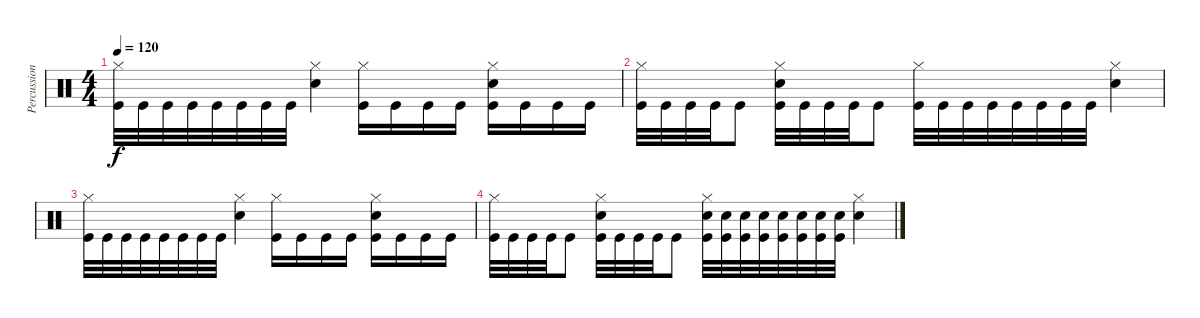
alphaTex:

\track ("Percussion" "Percussion") {instrument percussion}
\staff {score}
\articulation defaults
\ts (4 4)
\tempo 120
\clef neutral
\ks c
("Hi-Hat (closed)" "Kick (hit)").32{dy f} "Kick (hit)".32 "Kick (hit)".32 "Kick (hit)".32 "Kick (hit)".32 "Kick (hit)".32 "Kick (hit)".32 "Kick (hit)".32 ("Hi-Hat (closed)" "Snare (hit) 2").4 ("Hi-Hat (closed)" "Kick (hit)").16 "Kick (hit)".16 "Kick (hit)".16 "Kick (hit)".16 ("Hi-Hat (closed)" "Snare (hit) 2" "Kick (hit)").16 "Kick (hit)".16 "Kick (hit)".16 "Kick (hit)".16 |
("Hi-Hat (closed)" "Kick (hit)").32 "Kick (hit)".32 "Kick (hit)".32 "Kick (hit)".32 "Kick (hit)".8 ("Hi-Hat (closed)" "Snare (hit) 2" "Kick (hit)").32 "Kick (hit)".32 "Kick (hit)".32 "Kick (hit)".32 "Kick (hit)".8 ("Hi-Hat (closed)" "Kick (hit)").32 "Kick (hit)".32 "Kick (hit)".32 "Kick (hit)".32 "Kick (hit)".32 "Kick (hit)".32 "Kick (hit)".32 "Kick (hit)".32 ("Hi-Hat (closed)" "Snare (hit) 2").4 |
("Hi-Hat (closed)" "Kick (hit)").32 "Kick (hit)".32 "Kick (hit)".32 "Kick (hit)".32 "Kick (hit)".32 "Kick (hit)".32 "Kick (hit)".32 "Kick (hit)".32 ("Hi-Hat (closed)" "Snare (hit) 2").4 ("Hi-Hat (closed)" "Kick (hit)").16 "Kick (hit)".16 "Kick (hit)".16 "Kick (hit)".16 ("Hi-Hat (closed)" "Snare (hit) 2" "Kick (hit)").16 "Kick (hit)".16 "Kick (hit)".16 "Kick (hit)".16 |
("Hi-Hat (closed)" "Kick (hit)").32 "Kick (hit)".32 "Kick (hit)".32 "Kick (hit)".32 "Kick (hit)".8 ("Hi-Hat (closed)" "Snare (hit) 2" "Kick (hit)").32 "Kick (hit)".32 "Kick (hit)".32 "Kick (hit)".32 "Kick (hit)".8 ("Hi-Hat (closed)" "Snare (hit) 2" "Kick (hit)").32 ("Snare (hit) 2" "Kick (hit)").32 ("Snare (hit) 2" "Kick (hit)").32 ("Snare (hit) 2" "Kick (hit)").32 ("Snare (hit) 2" "Kick (hit)").32 ("Snare (hit) 2" "Kick (hit)").32 ("Snare (hit) 2" "Kick (hit)").32 ("Snare (hit) 2" "Kick (hit)").32 ("Hi-Hat (closed)" "Snare (hit) 2").4
